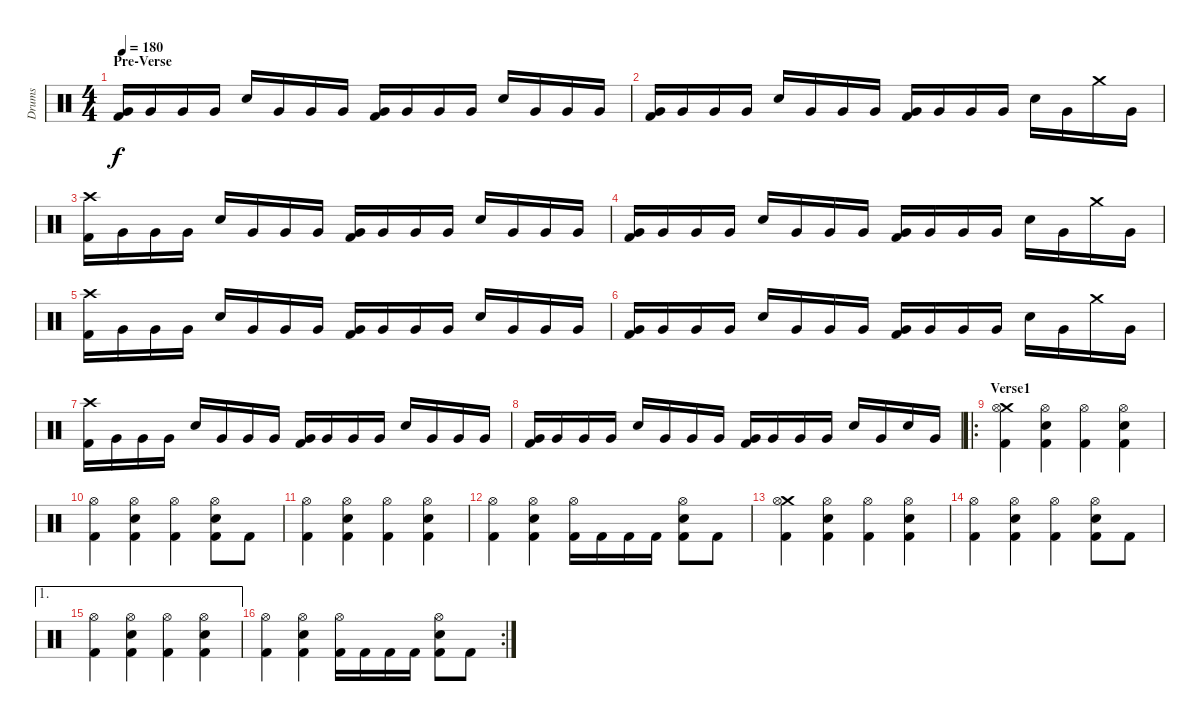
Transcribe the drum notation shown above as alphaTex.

\track ("Drums" "Drums") {instrument percussion}
\staff {score}
\articulation defaults
\ts (4 4)
\section ("" "Pre-Verse")
\tempo 180
\clef neutral
\ks c
("Kick (hit) 2" "Very Low Tom (hit)").16{dy f} "Very Low Tom (hit)".16 "Very Low Tom (hit)".16 "Very Low Tom (hit)".16 "Snare (hit) 2".16 "Very Low Tom (hit)".16 "Very Low Tom (hit)".16 "Very Low Tom (hit)".16 ("Kick (hit) 2" "Very Low Tom (hit)").16 "Very Low Tom (hit)".16 "Very Low Tom (hit)".16 "Very Low Tom (hit)".16 "Snare (hit) 2".16 "Very Low Tom (hit)".16 "Very Low Tom (hit)".16 "Very Low Tom (hit)".16 |
("Kick (hit) 2" "Very Low Tom (hit)").16 "Very Low Tom (hit)".16 "Very Low Tom (hit)".16 "Very Low Tom (hit)".16 "Snare (hit) 2".16 "Very Low Tom (hit)".16 "Very Low Tom (hit)".16 "Very Low Tom (hit)".16 ("Kick (hit) 2" "Very Low Tom (hit)").16 "Very Low Tom (hit)".16 "Very Low Tom (hit)".16 "Very Low Tom (hit)".16 "Snare (hit) 2".16 "Very Low Tom (hit)".16 "Crash medium (hit)".16 "Very Low Tom (hit)".16 |
("Crash high (hit)" "Kick (hit) 2").16 "Very Low Tom (hit)".16 "Very Low Tom (hit)".16 "Very Low Tom (hit)".16 "Snare (hit) 2".16 "Very Low Tom (hit)".16 "Very Low Tom (hit)".16 "Very Low Tom (hit)".16 ("Kick (hit) 2" "Very Low Tom (hit)").16 "Very Low Tom (hit)".16 "Very Low Tom (hit)".16 "Very Low Tom (hit)".16 "Snare (hit) 2".16 "Very Low Tom (hit)".16 "Very Low Tom (hit)".16 "Very Low Tom (hit)".16 |
("Kick (hit) 2" "Very Low Tom (hit)").16 "Very Low Tom (hit)".16 "Very Low Tom (hit)".16 "Very Low Tom (hit)".16 "Snare (hit) 2".16 "Very Low Tom (hit)".16 "Very Low Tom (hit)".16 "Very Low Tom (hit)".16 ("Kick (hit) 2" "Very Low Tom (hit)").16 "Very Low Tom (hit)".16 "Very Low Tom (hit)".16 "Very Low Tom (hit)".16 "Snare (hit) 2".16 "Very Low Tom (hit)".16 "Crash medium (hit)".16 "Very Low Tom (hit)".16 |
("Crash high (hit)" "Kick (hit) 2").16 "Very Low Tom (hit)".16 "Very Low Tom (hit)".16 "Very Low Tom (hit)".16 "Snare (hit) 2".16 "Very Low Tom (hit)".16 "Very Low Tom (hit)".16 "Very Low Tom (hit)".16 ("Kick (hit) 2" "Very Low Tom (hit)").16 "Very Low Tom (hit)".16 "Very Low Tom (hit)".16 "Very Low Tom (hit)".16 "Snare (hit) 2".16 "Very Low Tom (hit)".16 "Very Low Tom (hit)".16 "Very Low Tom (hit)".16 |
("Kick (hit) 2" "Very Low Tom (hit)").16 "Very Low Tom (hit)".16 "Very Low Tom (hit)".16 "Very Low Tom (hit)".16 "Snare (hit) 2".16 "Very Low Tom (hit)".16 "Very Low Tom (hit)".16 "Very Low Tom (hit)".16 ("Kick (hit) 2" "Very Low Tom (hit)").16 "Very Low Tom (hit)".16 "Very Low Tom (hit)".16 "Very Low Tom (hit)".16 "Snare (hit) 2".16 "Very Low Tom (hit)".16 "Crash medium (hit)".16 "Very Low Tom (hit)".16 |
("Crash high (hit)" "Kick (hit) 2").16 "Very Low Tom (hit)".16 "Very Low Tom (hit)".16 "Very Low Tom (hit)".16 "Snare (hit) 2".16 "Very Low Tom (hit)".16 "Very Low Tom (hit)".16 "Very Low Tom (hit)".16 ("Kick (hit) 2" "Very Low Tom (hit)").16 "Very Low Tom (hit)".16 "Very Low Tom (hit)".16 "Very Low Tom (hit)".16 "Snare (hit) 2".16 "Very Low Tom (hit)".16 "Very Low Tom (hit)".16 "Very Low Tom (hit)".16 |
("Kick (hit) 2" "Very Low Tom (hit)").16 "Very Low Tom (hit)".16 "Very Low Tom (hit)".16 "Very Low Tom (hit)".16 "Snare (hit) 2".16 "Very Low Tom (hit)".16 "Very Low Tom (hit)".16 "Very Low Tom (hit)".16 ("Kick (hit) 2" "Very Low Tom (hit)").16 "Very Low Tom (hit)".16 "Very Low Tom (hit)".16 "Very Low Tom (hit)".16 "Snare (hit) 2".16 "Very Low Tom (hit)".16 "Snare (hit) 2".16 "Very Low Tom (hit)".16 |
\ro
\section ("" "Verse1")
("Crash medium (hit)" "Hi-Hat (open)" "Kick (hit) 2").4{volume 12} ("Hi-Hat (open)" "Snare (hit) 2" "Kick (hit) 2").4 ("Hi-Hat (open)" "Kick (hit) 2").4 ("Hi-Hat (open)" "Snare (hit) 2" "Kick (hit) 2").4 |
("Hi-Hat (open)" "Kick (hit) 2").4 ("Hi-Hat (open)" "Snare (hit) 2" "Kick (hit) 2").4 ("Hi-Hat (open)" "Kick (hit) 2").4 ("Hi-Hat (open)" "Snare (hit) 2" "Kick (hit) 2").8 "Kick (hit) 2".8 |
("Hi-Hat (open)" "Kick (hit) 2").4 ("Hi-Hat (open)" "Snare (hit) 2" "Kick (hit) 2").4 ("Hi-Hat (open)" "Kick (hit) 2").4 ("Hi-Hat (open)" "Snare (hit) 2" "Kick (hit) 2").4 |
("Hi-Hat (open)" "Kick (hit) 2").4 ("Hi-Hat (open)" "Snare (hit) 2" "Kick (hit) 2").4 ("Hi-Hat (open)" "Kick (hit) 2").16 "Kick (hit) 2".16 "Kick (hit) 2".16 "Kick (hit) 2".16 ("Hi-Hat (open)" "Snare (hit) 2" "Kick (hit) 2").8 "Kick (hit) 2".8 |
("Crash medium (hit)" "Hi-Hat (open)" "Kick (hit) 2").4 ("Hi-Hat (open)" "Snare (hit) 2" "Kick (hit) 2").4 ("Hi-Hat (open)" "Kick (hit) 2").4 ("Hi-Hat (open)" "Snare (hit) 2" "Kick (hit) 2").4 |
("Hi-Hat (open)" "Kick (hit) 2").4 ("Hi-Hat (open)" "Snare (hit) 2" "Kick (hit) 2").4 ("Hi-Hat (open)" "Kick (hit) 2").4 ("Hi-Hat (open)" "Snare (hit) 2" "Kick (hit) 2").8 "Kick (hit) 2".8 |
\ae 1
("Hi-Hat (open)" "Kick (hit) 2").4 ("Hi-Hat (open)" "Snare (hit) 2" "Kick (hit) 2").4 ("Hi-Hat (open)" "Kick (hit) 2").4 ("Hi-Hat (open)" "Snare (hit) 2" "Kick (hit) 2").4 |
\rc 2
("Hi-Hat (open)" "Kick (hit) 2").4 ("Hi-Hat (open)" "Snare (hit) 2" "Kick (hit) 2").4 ("Hi-Hat (open)" "Kick (hit) 2").16 "Kick (hit) 2".16 "Kick (hit) 2".16 "Kick (hit) 2".16 ("Hi-Hat (open)" "Snare (hit) 2" "Kick (hit) 2").8 "Kick (hit) 2".8
